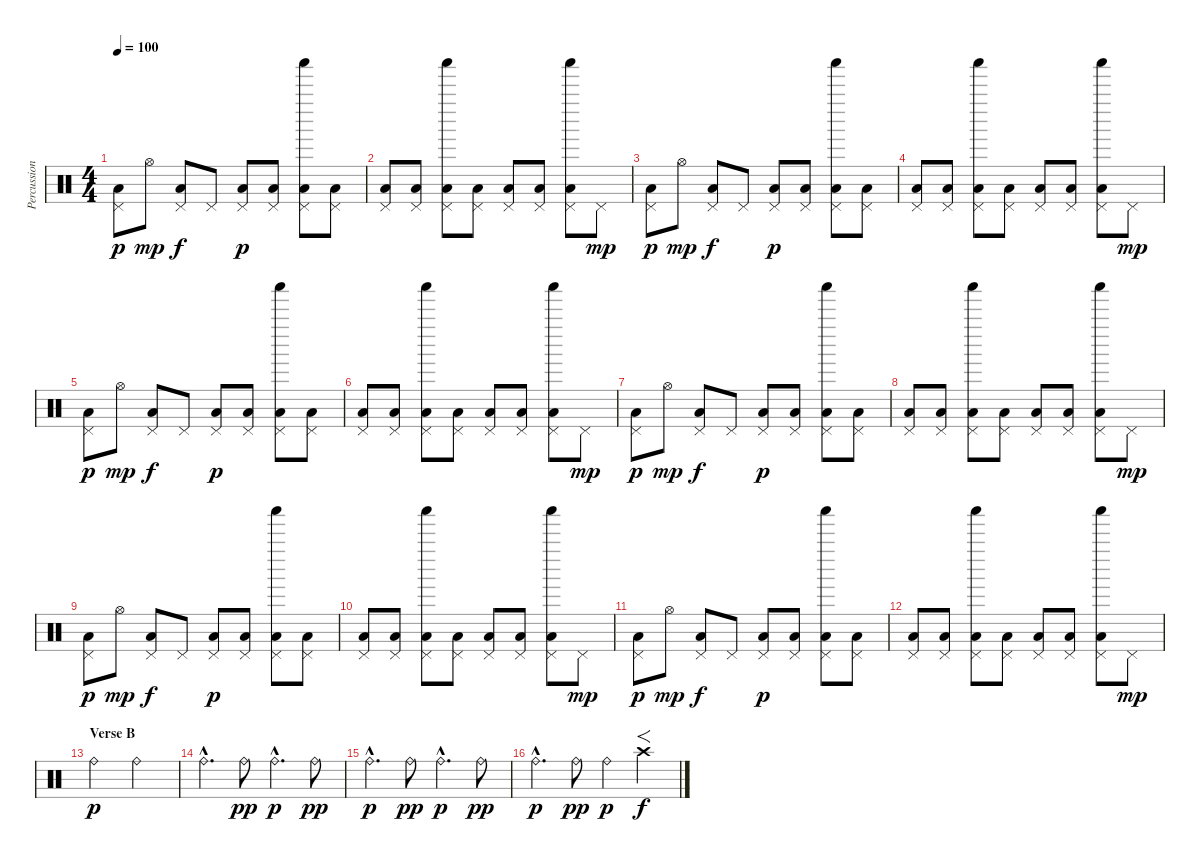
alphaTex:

\track ("Percussions" "Percussion") {instrument percussion}
\staff {score}
\articulation defaults
\ts (4 4)
\tempo 100
\clef neutral
\ks c
("Pedal Hi-Hat (hit)" "Low Floor Tom (hit)").8{dy p} "Hi-Hat (open)".8{dy mp} ("Pedal Hi-Hat (hit)" "Low Floor Tom (hit)").8{dy f} "Pedal Hi-Hat (hit)".8 ("Pedal Hi-Hat (hit)" "Low Floor Tom (hit)").8{dy p} ("Pedal Hi-Hat (hit)" "Low Floor Tom (hit)").8 ("Pedal Hi-Hat (hit)" "Shaker (hit)" "Low Floor Tom (hit)").8 ("Pedal Hi-Hat (hit)" "Low Floor Tom (hit)").8 |
("Pedal Hi-Hat (hit)" "Low Floor Tom (hit)").8 ("Pedal Hi-Hat (hit)" "Low Floor Tom (hit)").8 ("Pedal Hi-Hat (hit)" "Shaker (hit)" "Low Floor Tom (hit)").8 ("Pedal Hi-Hat (hit)" "Low Floor Tom (hit)").8 ("Pedal Hi-Hat (hit)" "Low Floor Tom (hit)").8 ("Pedal Hi-Hat (hit)" "Low Floor Tom (hit)").8 ("Pedal Hi-Hat (hit)" "Shaker (hit)" "Low Floor Tom (hit)").8 "Pedal Hi-Hat (hit)".8{dy mp} |
("Pedal Hi-Hat (hit)" "Low Floor Tom (hit)").8{dy p} "Hi-Hat (open)".8{dy mp} ("Pedal Hi-Hat (hit)" "Low Floor Tom (hit)").8{dy f} "Pedal Hi-Hat (hit)".8 ("Pedal Hi-Hat (hit)" "Low Floor Tom (hit)").8{dy p} ("Pedal Hi-Hat (hit)" "Low Floor Tom (hit)").8 ("Pedal Hi-Hat (hit)" "Shaker (hit)" "Low Floor Tom (hit)").8 ("Pedal Hi-Hat (hit)" "Low Floor Tom (hit)").8 |
("Pedal Hi-Hat (hit)" "Low Floor Tom (hit)").8 ("Pedal Hi-Hat (hit)" "Low Floor Tom (hit)").8 ("Pedal Hi-Hat (hit)" "Shaker (hit)" "Low Floor Tom (hit)").8 ("Pedal Hi-Hat (hit)" "Low Floor Tom (hit)").8 ("Pedal Hi-Hat (hit)" "Low Floor Tom (hit)").8 ("Pedal Hi-Hat (hit)" "Low Floor Tom (hit)").8 ("Pedal Hi-Hat (hit)" "Shaker (hit)" "Low Floor Tom (hit)").8 "Pedal Hi-Hat (hit)".8{dy mp} |
("Pedal Hi-Hat (hit)" "Low Floor Tom (hit)").8{dy p} "Hi-Hat (open)".8{dy mp} ("Pedal Hi-Hat (hit)" "Low Floor Tom (hit)").8{dy f} "Pedal Hi-Hat (hit)".8 ("Pedal Hi-Hat (hit)" "Low Floor Tom (hit)").8{dy p} ("Pedal Hi-Hat (hit)" "Low Floor Tom (hit)").8 ("Pedal Hi-Hat (hit)" "Shaker (hit)" "Low Floor Tom (hit)").8 ("Pedal Hi-Hat (hit)" "Low Floor Tom (hit)").8 |
("Pedal Hi-Hat (hit)" "Low Floor Tom (hit)").8 ("Pedal Hi-Hat (hit)" "Low Floor Tom (hit)").8 ("Pedal Hi-Hat (hit)" "Shaker (hit)" "Low Floor Tom (hit)").8 ("Pedal Hi-Hat (hit)" "Low Floor Tom (hit)").8 ("Pedal Hi-Hat (hit)" "Low Floor Tom (hit)").8 ("Pedal Hi-Hat (hit)" "Low Floor Tom (hit)").8 ("Pedal Hi-Hat (hit)" "Shaker (hit)" "Low Floor Tom (hit)").8 "Pedal Hi-Hat (hit)".8{dy mp} |
("Pedal Hi-Hat (hit)" "Low Floor Tom (hit)").8{dy p} "Hi-Hat (open)".8{dy mp} ("Pedal Hi-Hat (hit)" "Low Floor Tom (hit)").8{dy f} "Pedal Hi-Hat (hit)".8 ("Pedal Hi-Hat (hit)" "Low Floor Tom (hit)").8{dy p} ("Pedal Hi-Hat (hit)" "Low Floor Tom (hit)").8 ("Pedal Hi-Hat (hit)" "Shaker (hit)" "Low Floor Tom (hit)").8 ("Pedal Hi-Hat (hit)" "Low Floor Tom (hit)").8 |
("Pedal Hi-Hat (hit)" "Low Floor Tom (hit)").8 ("Pedal Hi-Hat (hit)" "Low Floor Tom (hit)").8 ("Pedal Hi-Hat (hit)" "Shaker (hit)" "Low Floor Tom (hit)").8 ("Pedal Hi-Hat (hit)" "Low Floor Tom (hit)").8 ("Pedal Hi-Hat (hit)" "Low Floor Tom (hit)").8 ("Pedal Hi-Hat (hit)" "Low Floor Tom (hit)").8 ("Pedal Hi-Hat (hit)" "Shaker (hit)" "Low Floor Tom (hit)").8 "Pedal Hi-Hat (hit)".8{dy mp} |
("Pedal Hi-Hat (hit)" "Low Floor Tom (hit)").8{dy p} "Hi-Hat (open)".8{dy mp} ("Pedal Hi-Hat (hit)" "Low Floor Tom (hit)").8{dy f} "Pedal Hi-Hat (hit)".8 ("Pedal Hi-Hat (hit)" "Low Floor Tom (hit)").8{dy p} ("Pedal Hi-Hat (hit)" "Low Floor Tom (hit)").8 ("Pedal Hi-Hat (hit)" "Shaker (hit)" "Low Floor Tom (hit)").8 ("Pedal Hi-Hat (hit)" "Low Floor Tom (hit)").8 |
("Pedal Hi-Hat (hit)" "Low Floor Tom (hit)").8 ("Pedal Hi-Hat (hit)" "Low Floor Tom (hit)").8 ("Pedal Hi-Hat (hit)" "Shaker (hit)" "Low Floor Tom (hit)").8 ("Pedal Hi-Hat (hit)" "Low Floor Tom (hit)").8 ("Pedal Hi-Hat (hit)" "Low Floor Tom (hit)").8 ("Pedal Hi-Hat (hit)" "Low Floor Tom (hit)").8 ("Pedal Hi-Hat (hit)" "Shaker (hit)" "Low Floor Tom (hit)").8 "Pedal Hi-Hat (hit)".8{dy mp} |
("Pedal Hi-Hat (hit)" "Low Floor Tom (hit)").8{dy p} "Hi-Hat (open)".8{dy mp} ("Pedal Hi-Hat (hit)" "Low Floor Tom (hit)").8{dy f} "Pedal Hi-Hat (hit)".8 ("Pedal Hi-Hat (hit)" "Low Floor Tom (hit)").8{dy p} ("Pedal Hi-Hat (hit)" "Low Floor Tom (hit)").8 ("Pedal Hi-Hat (hit)" "Shaker (hit)" "Low Floor Tom (hit)").8 ("Pedal Hi-Hat (hit)" "Low Floor Tom (hit)").8 |
("Pedal Hi-Hat (hit)" "Low Floor Tom (hit)").8 ("Pedal Hi-Hat (hit)" "Low Floor Tom (hit)").8 ("Pedal Hi-Hat (hit)" "Shaker (hit)" "Low Floor Tom (hit)").8 ("Pedal Hi-Hat (hit)" "Low Floor Tom (hit)").8 ("Pedal Hi-Hat (hit)" "Low Floor Tom (hit)").8 ("Pedal Hi-Hat (hit)" "Low Floor Tom (hit)").8 ("Pedal Hi-Hat (hit)" "Shaker (hit)" "Low Floor Tom (hit)").8 "Pedal Hi-Hat (hit)".8{dy mp} |
\section ("" "Verse B")
"Ride (bell)".2{dy p} "Ride (bell)".2 |
"Ride (bell)"{hac}.4{d} "Ride (bell)".8{dy pp} "Ride (bell)"{hac}.4{d dy p} "Ride (bell)".8{dy pp} |
"Ride (bell)"{hac}.4{d dy p} "Ride (bell)".8{dy pp} "Ride (bell)"{hac}.4{d dy p} "Ride (bell)".8{dy pp} |
"Ride (bell)"{hac}.4{d dy p} "Ride (bell)".8{dy pp} "Ride (bell)".4{dy p} "Crash high (hit)".4{f dy f}
